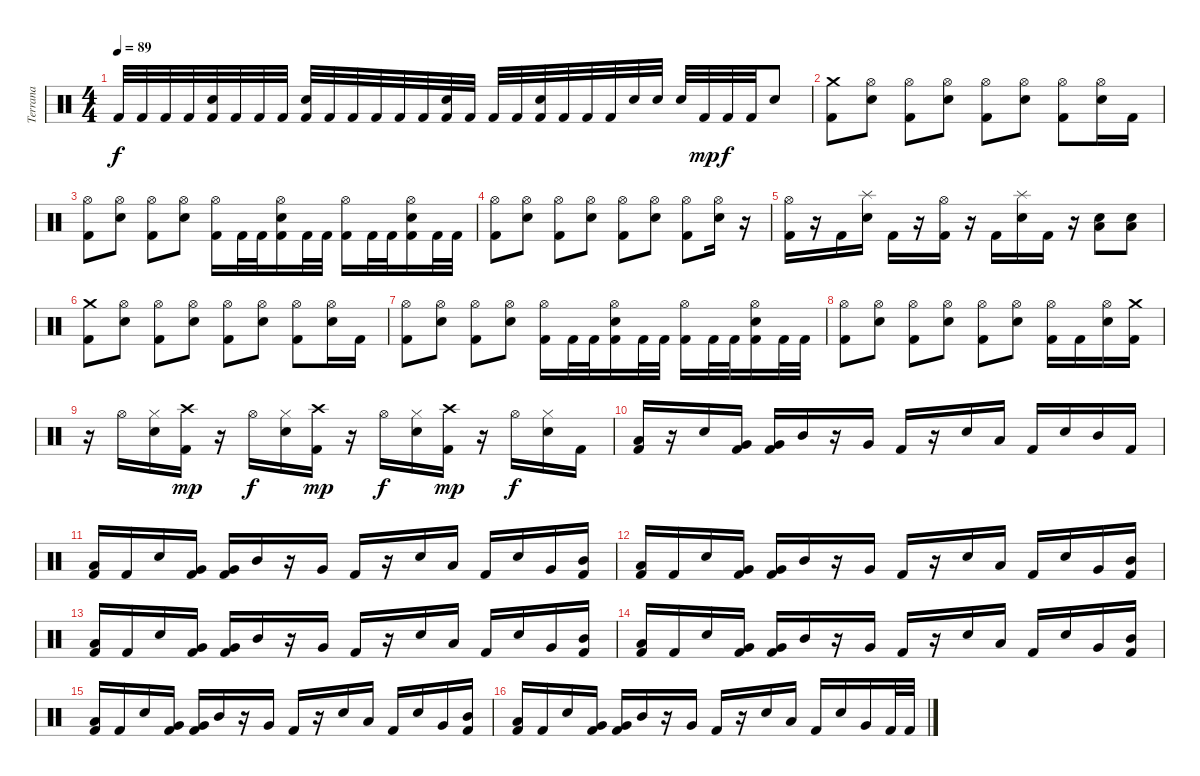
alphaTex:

\track ("Terrana" "Terrana") {instrument percussion}
\staff {score}
\articulation defaults
\ts (4 4)
\tempo 89
\clef neutral
\ks c "Kick (hit) 2".32{dy f} "Kick (hit) 2".32 "Kick (hit) 2".32 "Kick (hit) 2".32
("Electric Snare (hit)" "Kick (hit) 2").32 "Kick (hit) 2".32 "Kick (hit) 2".32 "Kick (hit) 2".32 ("Electric Snare (hit)" "Kick (hit) 2").32 "Kick (hit) 2".32 "Kick (hit) 2".32 "Kick (hit) 2".32 "Kick (hit) 2".32 "Kick (hit) 2".32 ("Electric Snare (hit)" "Kick (hit) 2").32 "Kick (hit) 2".32 "Kick (hit) 2".32 "Kick (hit) 2".32 ("Electric Snare (hit)" "Kick (hit) 2").32 "Kick (hit) 2".32 "Kick (hit) 2".32 "Kick (hit) 2".32 "Electric Snare (hit)".32 "Electric Snare (hit)".32 "Electric Snare (hit)".32 "Kick (hit) 2".32{dy mp} "Kick (hit) 2".32{dy f} "Kick (hit) 2".32 "Electric Snare (hit)".8 |
("Crash medium (hit)" "Kick (hit) 2").8 ("Hi-Hat (open)" "Electric Snare (hit)").8 ("Hi-Hat (open)" "Kick (hit) 2").8 ("Hi-Hat (open)" "Electric Snare (hit)").8 ("Hi-Hat (open)" "Kick (hit) 2").8 ("Hi-Hat (open)" "Electric Snare (hit)").8 ("Hi-Hat (open)" "Kick (hit) 2").8 ("Hi-Hat (open)" "Electric Snare (hit)").16 "Kick (hit) 2".16 |
("Hi-Hat (open)" "Kick (hit) 2").8 ("Hi-Hat (open)" "Electric Snare (hit)").8 ("Hi-Hat (open)" "Kick (hit) 2").8 ("Hi-Hat (open)" "Electric Snare (hit)").8 ("Hi-Hat (open)" "Kick (hit) 2").16 "Kick (hit) 2".32 "Kick (hit) 2".32 ("Hi-Hat (open)" "Electric Snare (hit)" "Kick (hit) 2").16 "Kick (hit) 2".32 "Kick (hit) 2".32 ("Hi-Hat (open)" "Kick (hit) 2").16 "Kick (hit) 2".32 "Kick (hit) 2".32 ("Hi-Hat (open)" "Electric Snare (hit)" "Kick (hit) 2").16 "Kick (hit) 2".32 "Kick (hit) 2".32 |
("Hi-Hat (open)" "Kick (hit) 2").8 ("Hi-Hat (open)" "Electric Snare (hit)").8 ("Hi-Hat (open)" "Kick (hit) 2").8 ("Hi-Hat (open)" "Electric Snare (hit)").8 ("Hi-Hat (open)" "Kick (hit) 2").8 ("Hi-Hat (open)" "Electric Snare (hit)").8 ("Hi-Hat (open)" "Kick (hit) 2").8 ("Hi-Hat (open)" "Electric Snare (hit)").16 r.16 |
("Hi-Hat (open)" "Kick (hit) 2").16 r.16 "Kick (hit) 2".16 ("Splash (hit)" "Electric Snare (hit)").16 "Kick (hit) 2".16 r.16 ("Hi-Hat (open)" "Kick (hit) 2").16 r.16 "Kick (hit) 2".16 ("Splash (hit)" "Electric Snare (hit)").16 "Kick (hit) 2".16 r.16 ("Low Floor Tom (hit)" "Electric Snare (hit)").8 ("Low Floor Tom (hit)" "Electric Snare (hit)").8 |
("Crash medium (hit)" "Kick (hit) 2").8 ("Hi-Hat (open)" "Electric Snare (hit)").8 ("Hi-Hat (open)" "Kick (hit) 2").8 ("Hi-Hat (open)" "Electric Snare (hit)").8 ("Hi-Hat (open)" "Kick (hit) 2").8 ("Hi-Hat (open)" "Electric Snare (hit)").8 ("Hi-Hat (open)" "Kick (hit) 2").8 ("Hi-Hat (open)" "Electric Snare (hit)").16 "Kick (hit) 2".16 |
("Hi-Hat (open)" "Kick (hit) 2").8 ("Hi-Hat (open)" "Electric Snare (hit)").8 ("Hi-Hat (open)" "Kick (hit) 2").8 ("Hi-Hat (open)" "Electric Snare (hit)").8 ("Hi-Hat (open)" "Kick (hit) 2").16 "Kick (hit) 2".32 "Kick (hit) 2".32 ("Hi-Hat (open)" "Electric Snare (hit)" "Kick (hit) 2").16 "Kick (hit) 2".32 "Kick (hit) 2".32 ("Hi-Hat (open)" "Kick (hit) 2").16 "Kick (hit) 2".32 "Kick (hit) 2".32 ("Hi-Hat (open)" "Electric Snare (hit)" "Kick (hit) 2").16 "Kick (hit) 2".32 "Kick (hit) 2".32 |
("Hi-Hat (open)" "Kick (hit) 2").8 ("Hi-Hat (open)" "Electric Snare (hit)").8 ("Hi-Hat (open)" "Kick (hit) 2").8 ("Hi-Hat (open)" "Electric Snare (hit)").8 ("Hi-Hat (open)" "Kick (hit) 2").8 ("Hi-Hat (open)" "Electric Snare (hit)").8 ("Hi-Hat (open)" "Kick (hit) 2").16 "Kick (hit) 2".16 ("Hi-Hat (open)" "Electric Snare (hit)").16 ("Crash medium (hit)" "Kick (hit) 2").16 |
r.16 "Hi-Hat (open)".16 ("Hi-Hat (closed)" "Electric Snare (hit)").16 ("Crash high (hit)" "Kick (hit) 2").16{dy mp} r.16 "Hi-Hat (open)".16{dy f} ("Hi-Hat (closed)" "Electric Snare (hit)").16 ("Crash high (hit)" "Kick (hit) 2").16{dy mp} r.16 "Hi-Hat (open)".16{dy f} ("Hi-Hat (closed)" "Electric Snare (hit)").16 ("Crash high (hit)" "Kick (hit) 2").16{dy mp} r.16 "Hi-Hat (open)".16{dy f} ("Hi-Hat (closed)" "Electric Snare (hit)").16 "Kick (hit) 2".16 |
("Low Floor Tom (hit)" "Kick (hit) 2").16 r.16 "Electric Snare (hit)".16 ("Very Low Tom (hit)" "Kick (hit) 2").16 ("Very Low Tom (hit)" "Kick (hit) 2").16 "Mid Tom (hit)".16 r.16 "Very Low Tom (hit)".16 "Kick (hit) 2".16 r.16 "Electric Snare (hit)".16 "Low Floor Tom (hit)".16 "Kick (hit) 2".16 "Electric Snare (hit)".16 "Mid Tom (hit)".16 "Kick (hit) 2".16 |
("Low Floor Tom (hit)" "Kick (hit) 2").16 "Kick (hit) 2".16 "Electric Snare (hit)".16 ("Very Low Tom (hit)" "Kick (hit) 2").16 ("Very Low Tom (hit)" "Kick (hit) 2").16 "Mid Tom (hit)".16 r.16 "Very Low Tom (hit)".16 "Kick (hit) 2".16 r.16 "Electric Snare (hit)".16 "Low Floor Tom (hit)".16 "Kick (hit) 2".16 "Electric Snare (hit)".16 "Very Low Tom (hit)".16 ("Mid Tom (hit)" "Kick (hit) 2").16 |
("Low Floor Tom (hit)" "Kick (hit) 2").16 "Kick (hit) 2".16 "Electric Snare (hit)".16 ("Very Low Tom (hit)" "Kick (hit) 2").16 ("Very Low Tom (hit)" "Kick (hit) 2").16 "Mid Tom (hit)".16 r.16 "Very Low Tom (hit)".16 "Kick (hit) 2".16 r.16 "Electric Snare (hit)".16 "Low Floor Tom (hit)".16 "Kick (hit) 2".16 "Electric Snare (hit)".16 "Very Low Tom (hit)".16 ("Mid Tom (hit)" "Kick (hit) 2").16 |
("Low Floor Tom (hit)" "Kick (hit) 2").16 "Kick (hit) 2".16 "Electric Snare (hit)".16 ("Very Low Tom (hit)" "Kick (hit) 2").16 ("Very Low Tom (hit)" "Kick (hit) 2").16 "Mid Tom (hit)".16 r.16 "Very Low Tom (hit)".16 "Kick (hit) 2".16 r.16 "Electric Snare (hit)".16 "Low Floor Tom (hit)".16 "Kick (hit) 2".16 "Electric Snare (hit)".16 "Very Low Tom (hit)".16 ("Mid Tom (hit)" "Kick (hit) 2").16 |
("Low Floor Tom (hit)" "Kick (hit) 2").16 "Kick (hit) 2".16 "Electric Snare (hit)".16 ("Very Low Tom (hit)" "Kick (hit) 2").16 ("Very Low Tom (hit)" "Kick (hit) 2").16 "Mid Tom (hit)".16 r.16 "Very Low Tom (hit)".16 "Kick (hit) 2".16 r.16 "Electric Snare (hit)".16 "Low Floor Tom (hit)".16 "Kick (hit) 2".16 "Electric Snare (hit)".16 "Very Low Tom (hit)".16 ("Mid Tom (hit)" "Kick (hit) 2").16 |
("Low Floor Tom (hit)" "Kick (hit) 2").16 "Kick (hit) 2".16 "Electric Snare (hit)".16 ("Very Low Tom (hit)" "Kick (hit) 2").16 ("Very Low Tom (hit)" "Kick (hit) 2").16 "Mid Tom (hit)".16 r.16 "Very Low Tom (hit)".16 "Kick (hit) 2".16 r.16 "Electric Snare (hit)".16 "Low Floor Tom (hit)".16 "Kick (hit) 2".16 "Electric Snare (hit)".16 "Very Low Tom (hit)".16 ("Mid Tom (hit)" "Kick (hit) 2").16 |
("Low Floor Tom (hit)" "Kick (hit) 2").16 "Kick (hit) 2".16 "Electric Snare (hit)".16 ("Very Low Tom (hit)" "Kick (hit) 2").16 ("Very Low Tom (hit)" "Kick (hit) 2").16 "Mid Tom (hit)".16 r.16 "Very Low Tom (hit)".16 "Kick (hit) 2".16 r.16 "Electric Snare (hit)".16 "Low Floor Tom (hit)".16 "Kick (hit) 2".16 "Electric Snare (hit)".16 "Very Low Tom (hit)".16 "Kick (hit) 2".32 "Kick (hit) 2".32
